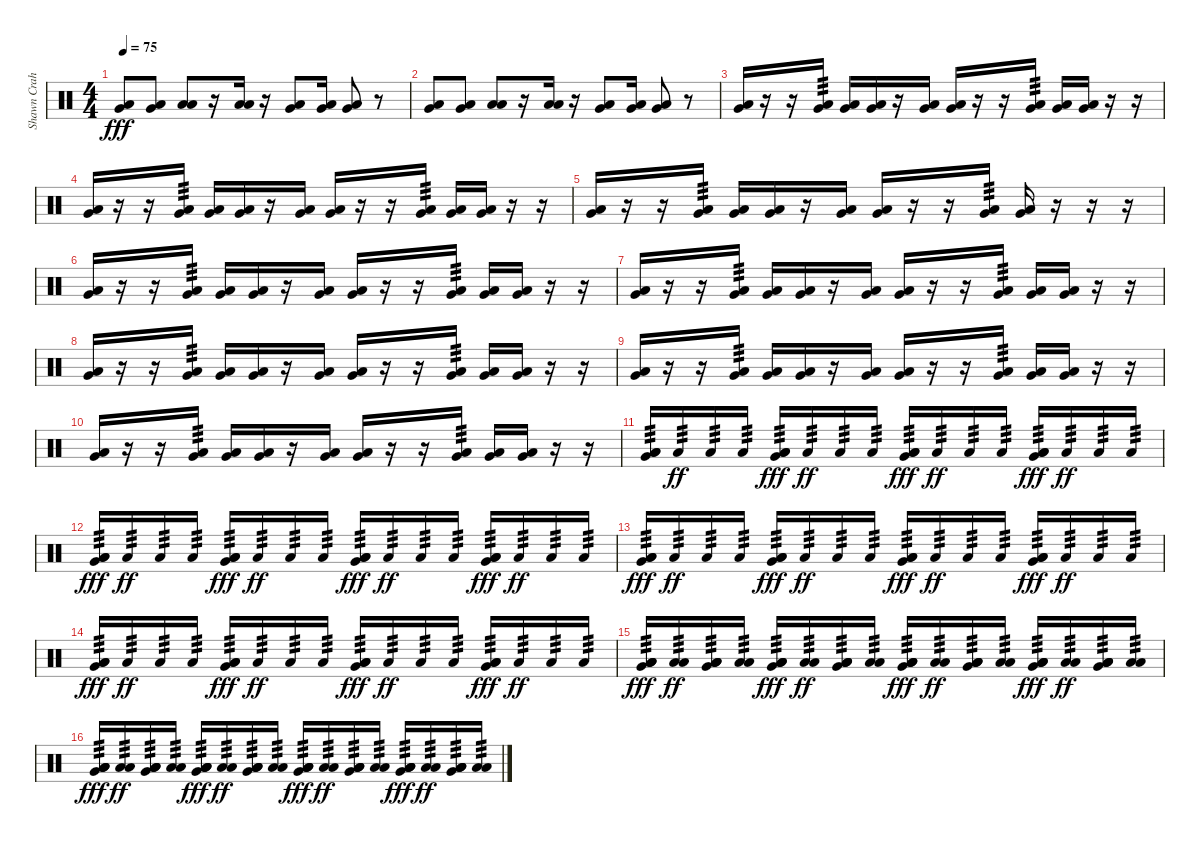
\track ("Shawn Crahan" "Shawn Crah") {instrument percussion}
\staff {score}
\articulation defaults
\ts (4 4)
\tempo 75
\clef neutral
\ks c
("Very Low Tom (hit)" "Low Floor Tom (hit)").8{dy fff} ("Very Low Tom (hit)" "Low Floor Tom (hit)").8 ("Low Tom (hit)" "Low Tom (hit)").8 r.16 ("Low Tom (hit)" "Low Tom (hit)").16 r.16 ("Low Floor Tom (hit)" "Very Low Tom (hit)").8 ("Very Low Tom (hit)" "Low Floor Tom (hit)").16 ("Very Low Tom (hit)" "Low Floor Tom (hit)").8 r.8 |
("Very Low Tom (hit)" "Low Floor Tom (hit)").8 ("Very Low Tom (hit)" "Low Floor Tom (hit)").8 ("Low Tom (hit)" "Low Tom (hit)").8 r.16 ("Low Tom (hit)" "Low Tom (hit)").16 r.16 ("Low Floor Tom (hit)" "Very Low Tom (hit)").8 ("Very Low Tom (hit)" "Low Floor Tom (hit)").16 ("Very Low Tom (hit)" "Low Floor Tom (hit)").8 r.8 |
("Very Low Tom (hit)" "Low Floor Tom (hit)").16 r.16 r.16 ("Very Low Tom (hit)" "Low Floor Tom (hit)").16{tp 3} ("Very Low Tom (hit)" "Low Floor Tom (hit)").16 ("Very Low Tom (hit)" "Low Floor Tom (hit)").16 r.16 ("Very Low Tom (hit)" "Low Floor Tom (hit)").16 ("Very Low Tom (hit)" "Low Floor Tom (hit)").16 r.16 r.16 ("Very Low Tom (hit)" "Low Floor Tom (hit)").16{tp 3} ("Very Low Tom (hit)" "Low Floor Tom (hit)").16 ("Very Low Tom (hit)" "Low Floor Tom (hit)").16 r.16 r.16 |
("Very Low Tom (hit)" "Low Floor Tom (hit)").16 r.16 r.16 ("Very Low Tom (hit)" "Low Floor Tom (hit)").16{tp 3} ("Very Low Tom (hit)" "Low Floor Tom (hit)").16 ("Very Low Tom (hit)" "Low Floor Tom (hit)").16 r.16 ("Very Low Tom (hit)" "Low Floor Tom (hit)").16 ("Very Low Tom (hit)" "Low Floor Tom (hit)").16 r.16 r.16 ("Very Low Tom (hit)" "Low Floor Tom (hit)").16{tp 3} ("Very Low Tom (hit)" "Low Floor Tom (hit)").16 ("Very Low Tom (hit)" "Low Floor Tom (hit)").16 r.16 r.16 |
("Very Low Tom (hit)" "Low Floor Tom (hit)").16 r.16 r.16 ("Very Low Tom (hit)" "Low Floor Tom (hit)").16{tp 3} ("Very Low Tom (hit)" "Low Floor Tom (hit)").16 ("Very Low Tom (hit)" "Low Floor Tom (hit)").16 r.16 ("Very Low Tom (hit)" "Low Floor Tom (hit)").16 ("Very Low Tom (hit)" "Low Floor Tom (hit)").16 r.16 r.16 ("Very Low Tom (hit)" "Low Floor Tom (hit)").16{tp 3} ("Very Low Tom (hit)" "Low Floor Tom (hit)").16 r.16 r.16 r.16 |
("Very Low Tom (hit)" "Low Floor Tom (hit)").16 r.16 r.16 ("Very Low Tom (hit)" "Low Floor Tom (hit)").16{tp 3} ("Very Low Tom (hit)" "Low Floor Tom (hit)").16 ("Very Low Tom (hit)" "Low Floor Tom (hit)").16 r.16 ("Very Low Tom (hit)" "Low Floor Tom (hit)").16 ("Very Low Tom (hit)" "Low Floor Tom (hit)").16 r.16 r.16 ("Very Low Tom (hit)" "Low Floor Tom (hit)").16{tp 3} ("Very Low Tom (hit)" "Low Floor Tom (hit)").16 ("Very Low Tom (hit)" "Low Floor Tom (hit)").16 r.16 r.16 |
("Very Low Tom (hit)" "Low Floor Tom (hit)").16 r.16 r.16 ("Very Low Tom (hit)" "Low Floor Tom (hit)").16{tp 3} ("Very Low Tom (hit)" "Low Floor Tom (hit)").16 ("Very Low Tom (hit)" "Low Floor Tom (hit)").16 r.16 ("Very Low Tom (hit)" "Low Floor Tom (hit)").16 ("Very Low Tom (hit)" "Low Floor Tom (hit)").16 r.16 r.16 ("Very Low Tom (hit)" "Low Floor Tom (hit)").16{tp 3} ("Very Low Tom (hit)" "Low Floor Tom (hit)").16 ("Very Low Tom (hit)" "Low Floor Tom (hit)").16 r.16 r.16 |
("Very Low Tom (hit)" "Low Floor Tom (hit)").16 r.16 r.16 ("Very Low Tom (hit)" "Low Floor Tom (hit)").16{tp 3} ("Very Low Tom (hit)" "Low Floor Tom (hit)").16 ("Very Low Tom (hit)" "Low Floor Tom (hit)").16 r.16 ("Very Low Tom (hit)" "Low Floor Tom (hit)").16 ("Very Low Tom (hit)" "Low Floor Tom (hit)").16 r.16 r.16 ("Very Low Tom (hit)" "Low Floor Tom (hit)").16{tp 3} ("Very Low Tom (hit)" "Low Floor Tom (hit)").16 ("Very Low Tom (hit)" "Low Floor Tom (hit)").16 r.16 r.16 |
("Very Low Tom (hit)" "Low Floor Tom (hit)").16 r.16 r.16 ("Very Low Tom (hit)" "Low Floor Tom (hit)").16{tp 3} ("Very Low Tom (hit)" "Low Floor Tom (hit)").16 ("Very Low Tom (hit)" "Low Floor Tom (hit)").16 r.16 ("Very Low Tom (hit)" "Low Floor Tom (hit)").16 ("Very Low Tom (hit)" "Low Floor Tom (hit)").16 r.16 r.16 ("Very Low Tom (hit)" "Low Floor Tom (hit)").16{tp 3} ("Very Low Tom (hit)" "Low Floor Tom (hit)").16 ("Very Low Tom (hit)" "Low Floor Tom (hit)").16 r.16 r.16 |
("Very Low Tom (hit)" "Low Floor Tom (hit)").16 r.16 r.16 ("Very Low Tom (hit)" "Low Floor Tom (hit)").16{tp 3} ("Very Low Tom (hit)" "Low Floor Tom (hit)").16 ("Very Low Tom (hit)" "Low Floor Tom (hit)").16 r.16 ("Very Low Tom (hit)" "Low Floor Tom (hit)").16 ("Very Low Tom (hit)" "Low Floor Tom (hit)").16 r.16 r.16 ("Very Low Tom (hit)" "Low Floor Tom (hit)").16{tp 3} ("Very Low Tom (hit)" "Low Floor Tom (hit)").16 ("Very Low Tom (hit)" "Low Floor Tom (hit)").16 r.16 r.16 |
("Low Floor Tom (hit)" "Very Low Tom (hit)" "Low Floor Tom (hit)").16{tp 3} "Low Floor Tom (hit)".16{tp 3 dy ff} "Low Floor Tom (hit)".16{tp 3} "Low Floor Tom (hit)".16{tp 3} ("Low Floor Tom (hit)" "Very Low Tom (hit)" "Low Floor Tom (hit)").16{tp 3 dy fff} "Low Floor Tom (hit)".16{tp 3 dy ff} "Low Floor Tom (hit)".16{tp 3} "Low Floor Tom (hit)".16{tp 3} ("Low Floor Tom (hit)" "Very Low Tom (hit)" "Low Floor Tom (hit)").16{tp 3 dy fff} "Low Floor Tom (hit)".16{tp 3 dy ff} "Low Floor Tom (hit)".16{tp 3} "Low Floor Tom (hit)".16{tp 3} ("Low Floor Tom (hit)" "Very Low Tom (hit)" "Low Floor Tom (hit)").16{tp 3 dy fff} "Low Floor Tom (hit)".16{tp 3 dy ff} "Low Floor Tom (hit)".16{tp 3} "Low Floor Tom (hit)".16{tp 3} |
("Low Floor Tom (hit)" "Very Low Tom (hit)" "Low Floor Tom (hit)").16{tp 3 dy fff} "Low Floor Tom (hit)".16{tp 3 dy ff} "Low Floor Tom (hit)".16{tp 3} "Low Floor Tom (hit)".16{tp 3} ("Low Floor Tom (hit)" "Very Low Tom (hit)" "Low Floor Tom (hit)").16{tp 3 dy fff} "Low Floor Tom (hit)".16{tp 3 dy ff} "Low Floor Tom (hit)".16{tp 3} "Low Floor Tom (hit)".16{tp 3} ("Low Floor Tom (hit)" "Very Low Tom (hit)" "Low Floor Tom (hit)").16{tp 3 dy fff} "Low Floor Tom (hit)".16{tp 3 dy ff} "Low Floor Tom (hit)".16{tp 3} "Low Floor Tom (hit)".16{tp 3} ("Low Floor Tom (hit)" "Very Low Tom (hit)" "Low Floor Tom (hit)").16{tp 3 dy fff} "Low Floor Tom (hit)".16{tp 3 dy ff} "Low Floor Tom (hit)".16{tp 3} "Low Floor Tom (hit)".16{tp 3} |
("Low Floor Tom (hit)" "Very Low Tom (hit)" "Low Floor Tom (hit)").16{tp 3 dy fff} "Low Floor Tom (hit)".16{tp 3 dy ff} "Low Floor Tom (hit)".16{tp 3} "Low Floor Tom (hit)".16{tp 3} ("Low Floor Tom (hit)" "Very Low Tom (hit)" "Low Floor Tom (hit)").16{tp 3 dy fff} "Low Floor Tom (hit)".16{tp 3 dy ff} "Low Floor Tom (hit)".16{tp 3} "Low Floor Tom (hit)".16{tp 3} ("Low Floor Tom (hit)" "Very Low Tom (hit)" "Low Floor Tom (hit)").16{tp 3 dy fff} "Low Floor Tom (hit)".16{tp 3 dy ff} "Low Floor Tom (hit)".16{tp 3} "Low Floor Tom (hit)".16{tp 3} ("Low Floor Tom (hit)" "Very Low Tom (hit)" "Low Floor Tom (hit)").16{tp 3 dy fff} "Low Floor Tom (hit)".16{tp 3 dy ff} "Low Floor Tom (hit)".16{tp 3} "Low Floor Tom (hit)".16{tp 3} |
("Low Floor Tom (hit)" "Very Low Tom (hit)" "Low Floor Tom (hit)").16{tp 3 dy fff} "Low Floor Tom (hit)".16{tp 3 dy ff} "Low Floor Tom (hit)".16{tp 3} "Low Floor Tom (hit)".16{tp 3} ("Low Floor Tom (hit)" "Very Low Tom (hit)" "Low Floor Tom (hit)").16{tp 3 dy fff} "Low Floor Tom (hit)".16{tp 3 dy ff} "Low Floor Tom (hit)".16{tp 3} "Low Floor Tom (hit)".16{tp 3} ("Low Floor Tom (hit)" "Very Low Tom (hit)" "Low Floor Tom (hit)").16{tp 3 dy fff} "Low Floor Tom (hit)".16{tp 3 dy ff} "Low Floor Tom (hit)".16{tp 3} "Low Floor Tom (hit)".16{tp 3} ("Low Floor Tom (hit)" "Very Low Tom (hit)" "Low Floor Tom (hit)").16{tp 3 dy fff} "Low Floor Tom (hit)".16{tp 3 dy ff} "Low Floor Tom (hit)".16{tp 3} "Low Floor Tom (hit)".16{tp 3} |
("Low Floor Tom (hit)" "Low Floor Tom (hit)" "Very Low Tom (hit)" "Low Floor Tom (hit)").16{tp 3 dy fff} ("Low Floor Tom (hit)" "Low Floor Tom (hit)").16{tp 3 dy ff} ("Low Floor Tom (hit)" "Low Floor Tom (hit)" "Very Low Tom (hit)" "Low Floor Tom (hit)").16{tp 3} ("Low Floor Tom (hit)" "Low Floor Tom (hit)").16{tp 3} ("Low Floor Tom (hit)" "Low Floor Tom (hit)" "Very Low Tom (hit)" "Low Floor Tom (hit)").16{tp 3 dy fff} ("Low Floor Tom (hit)" "Low Floor Tom (hit)").16{tp 3 dy ff} ("Low Floor Tom (hit)" "Low Floor Tom (hit)" "Very Low Tom (hit)" "Low Floor Tom (hit)").16{tp 3} ("Low Floor Tom (hit)" "Low Floor Tom (hit)").16{tp 3} ("Low Floor Tom (hit)" "Low Floor Tom (hit)" "Very Low Tom (hit)" "Low Floor Tom (hit)").16{tp 3 dy fff} ("Low Floor Tom (hit)" "Low Floor Tom (hit)").16{tp 3 dy ff} ("Low Floor Tom (hit)" "Low Floor Tom (hit)" "Very Low Tom (hit)" "Low Floor Tom (hit)").16{tp 3} ("Low Floor Tom (hit)" "Low Floor Tom (hit)").16{tp 3} ("Low Floor Tom (hit)" "Low Floor Tom (hit)" "Very Low Tom (hit)" "Low Floor Tom (hit)").16{tp 3 dy fff} ("Low Floor Tom (hit)" "Low Floor Tom (hit)").16{tp 3 dy ff} ("Low Floor Tom (hit)" "Low Floor Tom (hit)" "Very Low Tom (hit)" "Low Floor Tom (hit)").16{tp 3} ("Low Floor Tom (hit)" "Low Floor Tom (hit)").16{tp 3} |
("Low Floor Tom (hit)" "Low Floor Tom (hit)" "Very Low Tom (hit)" "Low Floor Tom (hit)").16{tp 3 dy fff} ("Low Floor Tom (hit)" "Low Floor Tom (hit)").16{tp 3 dy ff} ("Low Floor Tom (hit)" "Low Floor Tom (hit)" "Very Low Tom (hit)" "Low Floor Tom (hit)").16{tp 3} ("Low Floor Tom (hit)" "Low Floor Tom (hit)").16{tp 3} ("Low Floor Tom (hit)" "Low Floor Tom (hit)" "Very Low Tom (hit)" "Low Floor Tom (hit)").16{tp 3 dy fff} ("Low Floor Tom (hit)" "Low Floor Tom (hit)").16{tp 3 dy ff} ("Low Floor Tom (hit)" "Low Floor Tom (hit)" "Very Low Tom (hit)" "Low Floor Tom (hit)").16{tp 3} ("Low Floor Tom (hit)" "Low Floor Tom (hit)").16{tp 3} ("Low Floor Tom (hit)" "Low Floor Tom (hit)" "Very Low Tom (hit)" "Low Floor Tom (hit)").16{tp 3 dy fff} ("Low Floor Tom (hit)" "Low Floor Tom (hit)").16{tp 3 dy ff} ("Low Floor Tom (hit)" "Low Floor Tom (hit)" "Very Low Tom (hit)" "Low Floor Tom (hit)").16{tp 3} ("Low Floor Tom (hit)" "Low Floor Tom (hit)").16{tp 3} ("Low Floor Tom (hit)" "Low Floor Tom (hit)" "Very Low Tom (hit)" "Low Floor Tom (hit)").16{tp 3 dy fff} ("Low Floor Tom (hit)" "Low Floor Tom (hit)").16{tp 3 dy ff} ("Low Floor Tom (hit)" "Low Floor Tom (hit)" "Very Low Tom (hit)" "Low Floor Tom (hit)").16{tp 3} ("Low Floor Tom (hit)" "Low Floor Tom (hit)").16{tp 3}
